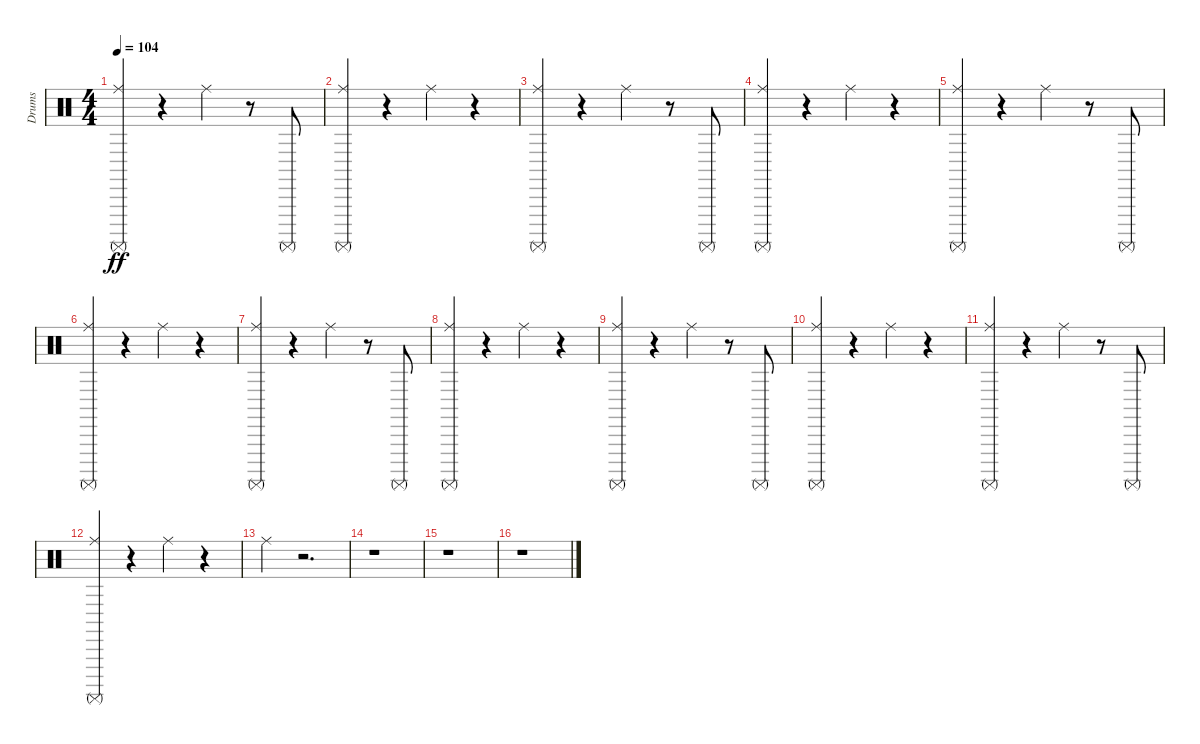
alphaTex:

\track ("Drums" "Drums") {instrument percussion}
\staff {score}
\articulation defaults
\ts (4 4)
\tempo 104
\clef neutral
\ks c
("Ride (middle)" "Surdo (mute)").4{dy ff} r.4 "Ride (middle)".4 r.8 "Surdo (mute)".8 |
("Ride (middle)" "Surdo (mute)").4 r.4 "Ride (middle)".4 r.4 |
("Ride (middle)" "Surdo (mute)").4 r.4 "Ride (middle)".4 r.8 "Surdo (mute)".8 |
("Ride (middle)" "Surdo (mute)").4 r.4 "Ride (middle)".4 r.4 |
("Ride (middle)" "Surdo (mute)").4 r.4 "Ride (middle)".4 r.8 "Surdo (mute)".8 |
("Ride (middle)" "Surdo (mute)").4 r.4 "Ride (middle)".4 r.4 |
("Ride (middle)" "Surdo (mute)").4 r.4 "Ride (middle)".4 r.8 "Surdo (mute)".8 |
("Ride (middle)" "Surdo (mute)").4 r.4 "Ride (middle)".4 r.4 |
("Ride (middle)" "Surdo (mute)").4 r.4 "Ride (middle)".4 r.8 "Surdo (mute)".8 |
("Ride (middle)" "Surdo (mute)").4 r.4 "Ride (middle)".4 r.4 |
("Ride (middle)" "Surdo (mute)").4 r.4 "Ride (middle)".4 r.8 "Surdo (mute)".8 |
("Ride (middle)" "Surdo (mute)").4 r.4 "Ride (middle)".4 r.4 |
"Ride (middle)".4 r.2{d} |
r.1 |
r.1 |
r.1
